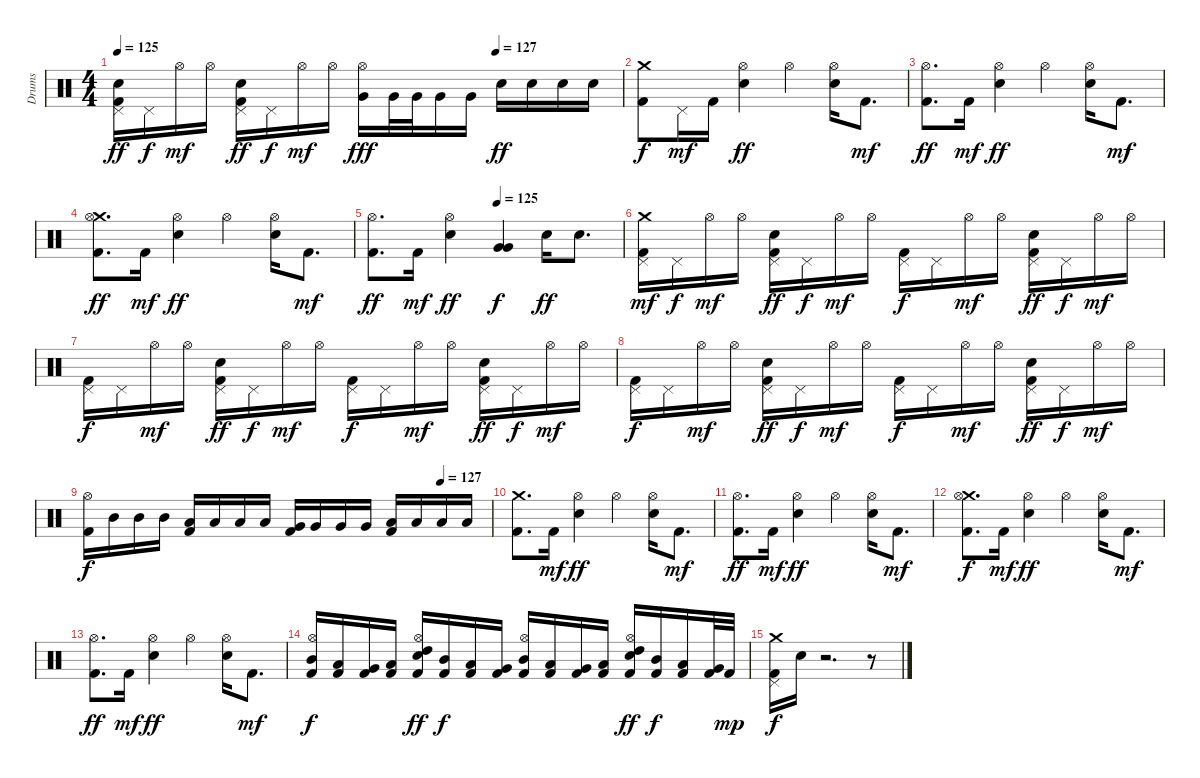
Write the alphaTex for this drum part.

\track ("Drums" "Drums") {instrument percussion}
\staff {score}
\articulation defaults
\ts (4 4)
\tempo 125
\tempo (127 0.75)
\clef neutral
\ks c
("Pedal Hi-Hat (hit)" "Electric Snare (hit)" "Kick (hit) 2").16{dy ff} "Pedal Hi-Hat (hit)".16{dy f} "Hi-Hat (open)".16{dy mf} "Hi-Hat (open)".16 ("Pedal Hi-Hat (hit)" "Electric Snare (hit)" "Kick (hit) 2").16{dy ff} "Pedal Hi-Hat (hit)".16{dy f} "Hi-Hat (open)".16{dy mf} "Hi-Hat (open)".16 ("Hi-Hat (open)" "Very Low Tom (hit)").16{dy fff} "Very Low Tom (hit)".32 "Very Low Tom (hit)".32 "Very Low Tom (hit)".16 "Very Low Tom (hit)".16 "Electric Snare (hit)".16{dy ff} "Electric Snare (hit)".16 "Electric Snare (hit)".16 "Electric Snare (hit)".16 |
("Crash medium (hit)" "Kick (hit) 2").8{dy f} "Pedal Hi-Hat (hit)".16{dy mf} "Kick (hit) 2".16 ("Hi-Hat (open)" "Electric Snare (hit)").4{dy ff} "Hi-Hat (open)".4 ("Hi-Hat (open)" "Electric Snare (hit)").16 "Kick (hit) 2".8{d dy mf} |
("Hi-Hat (open)" "Kick (hit) 2").8{d dy ff} "Kick (hit) 2".16{dy mf} ("Hi-Hat (open)" "Electric Snare (hit)").4{dy ff} "Hi-Hat (open)".4 ("Hi-Hat (open)" "Electric Snare (hit)").16 "Kick (hit) 2".8{d dy mf} |
("Crash medium (hit)" "Hi-Hat (open)" "Kick (hit) 2").8{d dy ff} "Kick (hit) 2".16{dy mf} ("Hi-Hat (open)" "Electric Snare (hit)").4{dy ff} "Hi-Hat (open)".4 ("Hi-Hat (open)" "Electric Snare (hit)").16 "Kick (hit) 2".8{d dy mf} |
\tempo (125 0.5)
("Hi-Hat (open)" "Kick (hit) 2").8{d dy ff} "Kick (hit) 2".16{dy mf} ("Hi-Hat (open)" "Electric Snare (hit)").4{dy ff} ("Very Low Tom (hit)" "Very Low Tom (hit)").4{dy f} "Electric Snare (hit)".16{dy ff} "Electric Snare (hit)".8{d} |
("Crash medium (hit)" "Pedal Hi-Hat (hit)" "Kick (hit) 2").16{dy mf} "Pedal Hi-Hat (hit)".16{dy f} "Hi-Hat (open)".16{dy mf} "Hi-Hat (open)".16 ("Pedal Hi-Hat (hit)" "Electric Snare (hit)" "Kick (hit) 2").16{dy ff} "Pedal Hi-Hat (hit)".16{dy f} "Hi-Hat (open)".16{dy mf} "Hi-Hat (open)".16 ("Pedal Hi-Hat (hit)" "Kick (hit) 2").16{dy f} "Pedal Hi-Hat (hit)".16 "Hi-Hat (open)".16{dy mf} "Hi-Hat (open)".16 ("Pedal Hi-Hat (hit)" "Electric Snare (hit)" "Kick (hit) 2").16{dy ff} "Pedal Hi-Hat (hit)".16{dy f} "Hi-Hat (open)".16{dy mf} "Hi-Hat (open)".16 |
("Pedal Hi-Hat (hit)" "Kick (hit) 2").16{dy f} "Pedal Hi-Hat (hit)".16 "Hi-Hat (open)".16{dy mf} "Hi-Hat (open)".16 ("Pedal Hi-Hat (hit)" "Electric Snare (hit)" "Kick (hit) 2").16{dy ff} "Pedal Hi-Hat (hit)".16{dy f} "Hi-Hat (open)".16{dy mf} "Hi-Hat (open)".16 ("Pedal Hi-Hat (hit)" "Kick (hit) 2").16{dy f} "Pedal Hi-Hat (hit)".16 "Hi-Hat (open)".16{dy mf} "Hi-Hat (open)".16 ("Pedal Hi-Hat (hit)" "Electric Snare (hit)" "Kick (hit) 2").16{dy ff} "Pedal Hi-Hat (hit)".16{dy f} "Hi-Hat (open)".16{dy mf} "Hi-Hat (open)".16 |
("Pedal Hi-Hat (hit)" "Kick (hit) 2").16{dy f} "Pedal Hi-Hat (hit)".16 "Hi-Hat (open)".16{dy mf} "Hi-Hat (open)".16 ("Pedal Hi-Hat (hit)" "Electric Snare (hit)" "Kick (hit) 2").16{dy ff} "Pedal Hi-Hat (hit)".16{dy f} "Hi-Hat (open)".16{dy mf} "Hi-Hat (open)".16 ("Pedal Hi-Hat (hit)" "Kick (hit) 2").16{dy f} "Pedal Hi-Hat (hit)".16 "Hi-Hat (open)".16{dy mf} "Hi-Hat (open)".16 ("Pedal Hi-Hat (hit)" "Electric Snare (hit)" "Kick (hit) 2").16{dy ff} "Pedal Hi-Hat (hit)".16{dy f} "Hi-Hat (open)".16{dy mf} "Hi-Hat (open)".16 |
\tempo (127 0.875)
("Hi-Hat (open)" "Kick (hit) 2").16{dy f} "Mid Tom (hit)".16 "Mid Tom (hit)".16 "Mid Tom (hit)".16 ("Low Tom (hit)" "Kick (hit) 2").16 "Low Tom (hit)".16 "Low Tom (hit)".16 "Low Tom (hit)".16 ("Very Low Tom (hit)" "Kick (hit) 2").16 "Very Low Tom (hit)".16 "Very Low Tom (hit)".16 "Very Low Tom (hit)".16 ("Low Floor Tom (hit)" "Kick (hit) 2").16 "Low Floor Tom (hit)".16 "Low Floor Tom (hit)".16 "Low Floor Tom (hit)".16 |
("Crash medium (hit)" "Kick (hit) 2").8{d} "Kick (hit) 2".16{dy mf} ("Hi-Hat (open)" "Electric Snare (hit)").4{dy ff} "Hi-Hat (open)".4 ("Hi-Hat (open)" "Electric Snare (hit)").16 "Kick (hit) 2".8{d dy mf} |
("Hi-Hat (open)" "Kick (hit) 2").8{d dy ff} "Kick (hit) 2".16{dy mf} ("Hi-Hat (open)" "Electric Snare (hit)").4{dy ff} "Hi-Hat (open)".4 ("Hi-Hat (open)" "Electric Snare (hit)").16 "Kick (hit) 2".8{d dy mf} |
("Crash medium (hit)" "Hi-Hat (open)" "Kick (hit) 2").8{d dy f} "Kick (hit) 2".16{dy mf} ("Hi-Hat (open)" "Electric Snare (hit)").4{dy ff} "Hi-Hat (open)".4 ("Hi-Hat (open)" "Electric Snare (hit)").16 "Kick (hit) 2".8{d dy mf} |
("Hi-Hat (open)" "Kick (hit) 2").8{d dy ff} "Kick (hit) 2".16{dy mf} ("Hi-Hat (open)" "Electric Snare (hit)").4{dy ff} "Hi-Hat (open)".4 ("Hi-Hat (open)" "Electric Snare (hit)").16 "Kick (hit) 2".8{d dy mf} |
("Hi-Hat (open)" "Mid Tom (hit)" "Kick (hit) 2").16{dy f} ("Low Tom (hit)" "Kick (hit) 2").16 ("Very Low Tom (hit)" "Kick (hit) 2").16 ("Low Floor Tom (hit)" "Kick (hit) 2").16 ("Hi-Hat (open)" "Electric Snare (hit)" "High Tom (hit)" "Kick (hit) 2").16{dy ff} ("Mid Tom (hit)" "Kick (hit) 2").16{dy f} ("Low Tom (hit)" "Kick (hit) 2").16 ("Very Low Tom (hit)" "Kick (hit) 2").16 ("Hi-Hat (open)" "Mid Tom (hit)" "Kick (hit) 2").16 ("Low Tom (hit)" "Kick (hit) 2").16 ("Very Low Tom (hit)" "Kick (hit) 2").16 ("Low Floor Tom (hit)" "Kick (hit) 2").16 ("Hi-Hat (open)" "Electric Snare (hit)" "High Tom (hit)" "Kick (hit) 2").16{dy ff} ("Mid Tom (hit)" "Kick (hit) 2").16{dy f} ("Low Tom (hit)" "Kick (hit) 2").16 ("Very Low Tom (hit)" "Kick (hit) 2").32 "Kick (hit) 2".32{dy mp} |
("Crash medium (hit)" "Pedal Hi-Hat (hit)" "Kick (hit) 2").16{dy f} "Snare (hit)".16{volume 0} r.2{d} r.8
